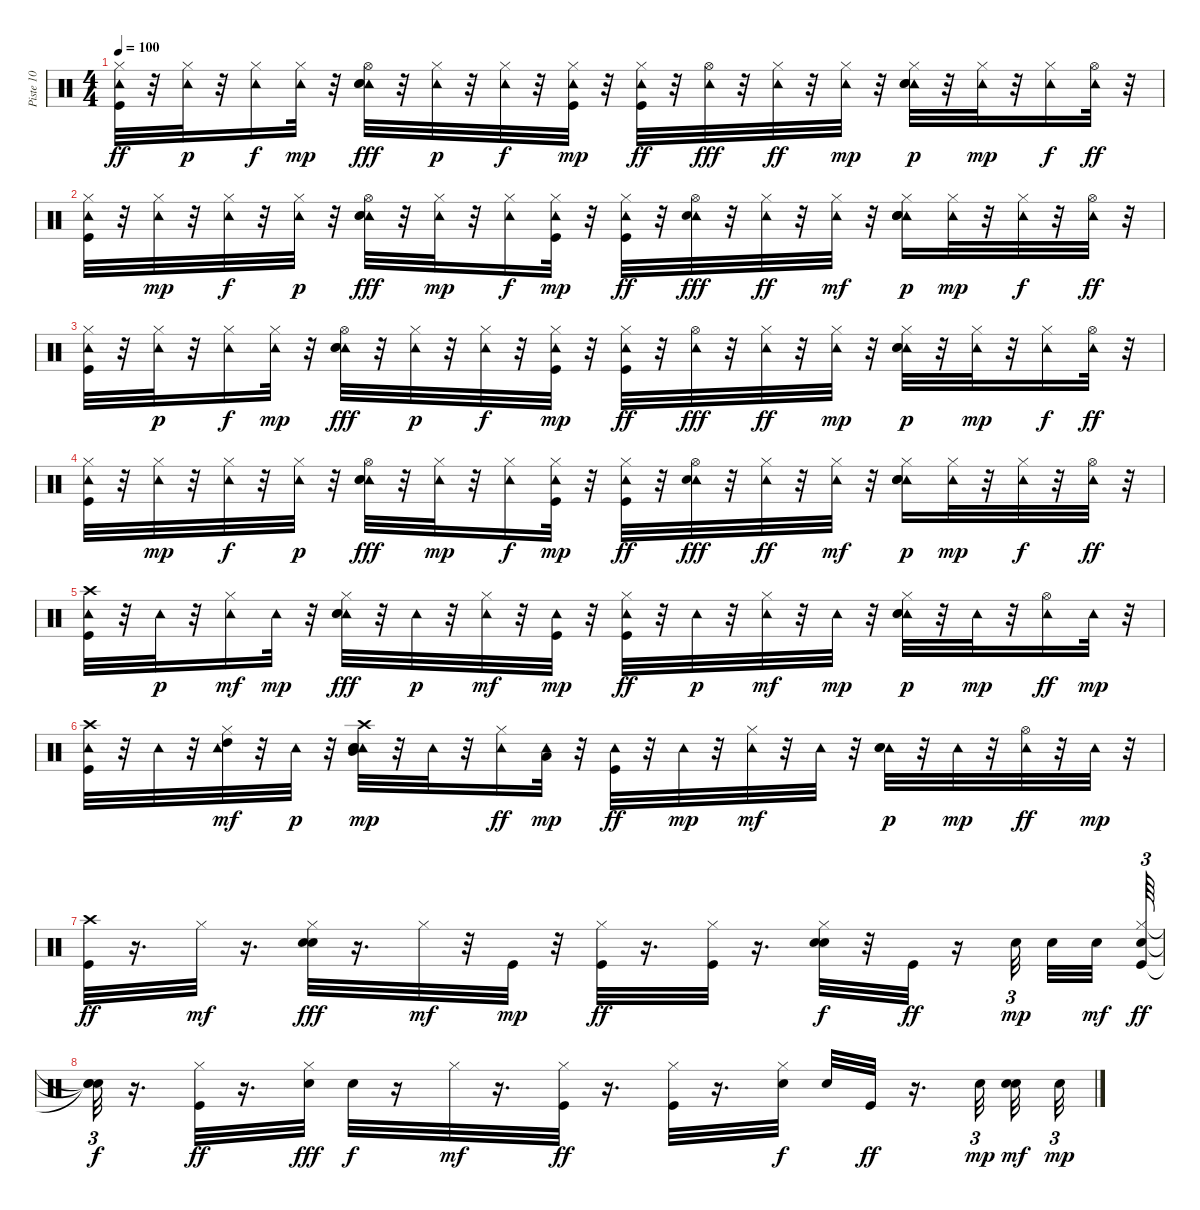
\track ("Piste 10" "Piste 10") {instrument percussion}
\staff {score}
\articulation defaults
\ts (4 4)
\tempo 100
\clef neutral
\ks c
("Tambourine (hit)" "Kick (hit)" "Hi-Hat (closed)").32{dy ff} r.32 ("Tambourine (hit)" "Hi-Hat (closed)").32{dy p} r.32 ("Tambourine (hit)" "Hi-Hat (closed)").16{dy f} ("Tambourine (hit)" "Hi-Hat (closed)").32{dy mp} r.32 ("Tambourine (hit)" "Hi-Hat (open)" "Electric Snare (hit)" "Hand Clap (hit)").32{dy fff} r.32 ("Tambourine (hit)" "Hi-Hat (closed)").32{dy p} r.32 ("Tambourine (hit)" "Hi-Hat (closed)").32{dy f} r.32 ("Tambourine (hit)" "Hi-Hat (closed)" "Kick (hit)").32{dy mp} r.32 ("Tambourine (hit)" "Hi-Hat (closed)" "Kick (hit)").32{dy ff} r.32 ("Tambourine (hit)" "Hi-Hat (open)").32{dy fff} r.32 ("Tambourine (hit)" "Hi-Hat (closed)").32{dy ff} r.32 ("Tambourine (hit)" "Hi-Hat (closed)").32{dy mp} r.32 ("Tambourine (hit)" "Hi-Hat (closed)" "Electric Snare (hit)" "Hand Clap (hit)").32{dy p} r.32 ("Tambourine (hit)" "Hi-Hat (closed)").32{dy mp} r.32 ("Tambourine (hit)" "Hi-Hat (closed)").16{dy f} ("Tambourine (hit)" "Hi-Hat (open)").32{dy ff} r.32 |
("Tambourine (hit)" "Kick (hit)" "Hi-Hat (closed)").32 r.32 ("Tambourine (hit)" "Hi-Hat (closed)").32{dy mp} r.32 ("Tambourine (hit)" "Hi-Hat (closed)").32{dy f} r.32 ("Tambourine (hit)" "Hi-Hat (closed)").32{dy p} r.32 ("Tambourine (hit)" "Hi-Hat (open)" "Electric Snare (hit)" "Hand Clap (hit)").32{dy fff} r.32 ("Tambourine (hit)" "Hi-Hat (closed)").32{dy mp} r.32 ("Tambourine (hit)" "Hi-Hat (closed)").16{dy f} ("Tambourine (hit)" "Hi-Hat (closed)" "Kick (hit)").32{dy mp} r.32 ("Tambourine (hit)" "Kick (hit)" "Hi-Hat (closed)").32{dy ff} r.32 ("Tambourine (hit)" "Hi-Hat (open)" "Electric Snare (hit)").32{dy fff} r.32 ("Tambourine (hit)" "Hi-Hat (closed)").32{dy ff} r.32 ("Tambourine (hit)" "Hi-Hat (closed)").32{dy mf} r.32 ("Tambourine (hit)" "Hi-Hat (closed)" "Electric Snare (hit)" "Hand Clap (hit)" "Hand Clap (hit)").16{dy p} ("Tambourine (hit)" "Hi-Hat (closed)").32{dy mp} r.32 ("Tambourine (hit)" "Hi-Hat (closed)").32{dy f} r.32 ("Tambourine (hit)" "Hi-Hat (open)").32{dy ff} r.32 |
("Tambourine (hit)" "Kick (hit)" "Hi-Hat (closed)").32 r.32 ("Tambourine (hit)" "Hi-Hat (closed)").32{dy p} r.32 ("Tambourine (hit)" "Hi-Hat (closed)").16{dy f} ("Tambourine (hit)" "Hi-Hat (closed)").32{dy mp} r.32 ("Tambourine (hit)" "Hi-Hat (open)" "Electric Snare (hit)" "Hand Clap (hit)").32{dy fff} r.32 ("Tambourine (hit)" "Hi-Hat (closed)").32{dy p} r.32 ("Tambourine (hit)" "Hi-Hat (closed)").32{dy f} r.32 ("Tambourine (hit)" "Hi-Hat (closed)" "Kick (hit)").32{dy mp} r.32 ("Tambourine (hit)" "Hi-Hat (closed)" "Kick (hit)").32{dy ff} r.32 ("Tambourine (hit)" "Hi-Hat (open)").32{dy fff} r.32 ("Tambourine (hit)" "Hi-Hat (closed)").32{dy ff} r.32 ("Tambourine (hit)" "Hi-Hat (closed)").32{dy mp} r.32 ("Tambourine (hit)" "Hi-Hat (closed)" "Electric Snare (hit)" "Hand Clap (hit)").32{dy p} r.32 ("Tambourine (hit)" "Hi-Hat (closed)").32{dy mp} r.32 ("Tambourine (hit)" "Hi-Hat (closed)").16{dy f} ("Tambourine (hit)" "Hi-Hat (open)").32{dy ff} r.32 |
("Tambourine (hit)" "Kick (hit)" "Hi-Hat (closed)").32 r.32 ("Tambourine (hit)" "Hi-Hat (closed)").32{dy mp} r.32 ("Tambourine (hit)" "Hi-Hat (closed)").32{dy f} r.32 ("Tambourine (hit)" "Hi-Hat (closed)").32{dy p} r.32 ("Tambourine (hit)" "Hi-Hat (open)" "Electric Snare (hit)" "Hand Clap (hit)").32{dy fff} r.32 ("Tambourine (hit)" "Hi-Hat (closed)").32{dy mp} r.32 ("Tambourine (hit)" "Hi-Hat (closed)").16{dy f} ("Tambourine (hit)" "Hi-Hat (closed)" "Kick (hit)").32{dy mp} r.32 ("Tambourine (hit)" "Kick (hit)" "Hi-Hat (closed)").32{dy ff} r.32 ("Tambourine (hit)" "Hi-Hat (open)" "Electric Snare (hit)").32{dy fff} r.32 ("Tambourine (hit)" "Hi-Hat (closed)").32{dy ff} r.32 ("Tambourine (hit)" "Hi-Hat (closed)").32{dy mf} r.32 ("Tambourine (hit)" "Hi-Hat (closed)" "Electric Snare (hit)" "Hand Clap (hit)" "Hand Clap (hit)").16{dy p} ("Tambourine (hit)" "Hi-Hat (closed)").32{dy mp} r.32 ("Tambourine (hit)" "Hi-Hat (closed)").32{dy f} r.32 ("Tambourine (hit)" "Hi-Hat (open)").32{dy ff} r.32 |
("Tambourine (hit)" "Kick (hit)" "Crash high (hit)").32 r.32 "Tambourine (hit)".32{dy p} r.32 ("Tambourine (hit)" "Hi-Hat (closed)").16{dy mf} "Tambourine (hit)".32{dy mp} r.32 ("Tambourine (hit)" "Hi-Hat (closed)" "Electric Snare (hit)" "Hand Clap (hit)").32{dy fff} r.32 "Tambourine (hit)".32{dy p} r.32 ("Tambourine (hit)" "Hi-Hat (closed)").32{dy mf} r.32 ("Tambourine (hit)" "Kick (hit)").32{dy mp} r.32 ("Tambourine (hit)" "Hi-Hat (closed)" "Kick (hit)").32{dy ff} r.32 "Tambourine (hit)".32{dy p} r.32 ("Tambourine (hit)" "Hi-Hat (closed)").32{dy mf} r.32 "Tambourine (hit)".32{dy mp} r.32 ("Tambourine (hit)" "Hi-Hat (closed)" "Electric Snare (hit)" "Hand Clap (hit)").32{dy p} r.32 "Tambourine (hit)".32{dy mp} r.32 ("Tambourine (hit)" "Hi-Hat (open)").16{dy ff} "Tambourine (hit)".32{dy mp} r.32 |
("Tambourine (hit)" "Kick (hit)" "Crash high (hit)").32 r.32 "Tambourine (hit)".32 r.32 ("High Tom (hit)" "Tambourine (hit)" "Hi-Hat (closed)").32{dy mf} r.32 "Tambourine (hit)".32{dy p} r.32 ("Tambourine (hit)" "Crash high (hit)" "Mid Tom (hit)" "Electric Snare (hit)" "Hand Clap (hit)").32{dy mp} r.32 "Tambourine (hit)".32 r.32 ("Tambourine (hit)" "Hi-Hat (closed)").16{dy ff} ("Tambourine (hit)" "Low Tom (hit)").32{dy mp} r.32 ("Tambourine (hit)" "Kick (hit)").32{dy ff} r.32 "Tambourine (hit)".32{dy mp} r.32 ("Tambourine (hit)" "Hi-Hat (closed)").32{dy mf} r.32 "Tambourine (hit)".32 r.32 ("Tambourine (hit)" "Electric Snare (hit)" "Hand Clap (hit)").32{dy p} r.32 "Tambourine (hit)".32{dy mp} r.32 ("Tambourine (hit)" "Hi-Hat (open)").32{dy ff} r.32 "Tambourine (hit)".32{dy mp} r.32 |
("Kick (hit)" "Crash high (hit)").32{dy ff} r.16{d} "Hi-Hat (closed)".32{dy mf} r.16{d} ("Hi-Hat (closed)" "Electric Snare (hit)" "Hand Clap (hit)").32{dy fff} r.16{d} "Hi-Hat (closed)".32{dy mf} r.32 "Kick (hit)".32{dy mp} r.32 ("Hi-Hat (closed)" "Kick (hit)").32{dy ff} r.16{d} ("Hi-Hat (closed)" "Kick (hit)").32 r.16{d} ("Hi-Hat (closed)" "Electric Snare (hit)" "Hand Clap (hit)").32{dy f} r.32 "Kick (hit)".32{dy ff} r.16 "Electric Snare (hit)".32{tu (3 2) dy mp} "Electric Snare (hit)".32 "Electric Snare (hit)".32{dy mf} ("Electric Snare (hit)" "Kick (hit)" "Hi-Hat (closed)").64{tu (3 2) dy ff} |
("Snare (hit)"{t} "Snare (hit)"{t} "Snare (hit)"{t}).32{tu (3 2) dy f} r.16{d} ("Hi-Hat (closed)" "Kick (hit)").32{dy ff} r.16{d} ("Hi-Hat (closed)" "Electric Snare (hit)").32{dy fff} "Hand Clap (hit)".32{dy f} r.16 "Hi-Hat (closed)".32{dy mf} r.16{d} ("Hi-Hat (closed)" "Kick (hit)").32{dy ff} r.16{d} ("Hi-Hat (closed)" "Kick (hit)").32 r.16{d} ("Hi-Hat (closed)" "Electric Snare (hit)").32{dy f} "Hand Clap (hit)".32 "Kick (hit)".32{dy ff} r.16{d} "Electric Snare (hit)".32{tu (3 2) dy mp} ("Electric Snare (hit)" "Electric Snare (hit)").32{dy mf} "Electric Snare (hit)".32{tu (3 2) dy mp}
